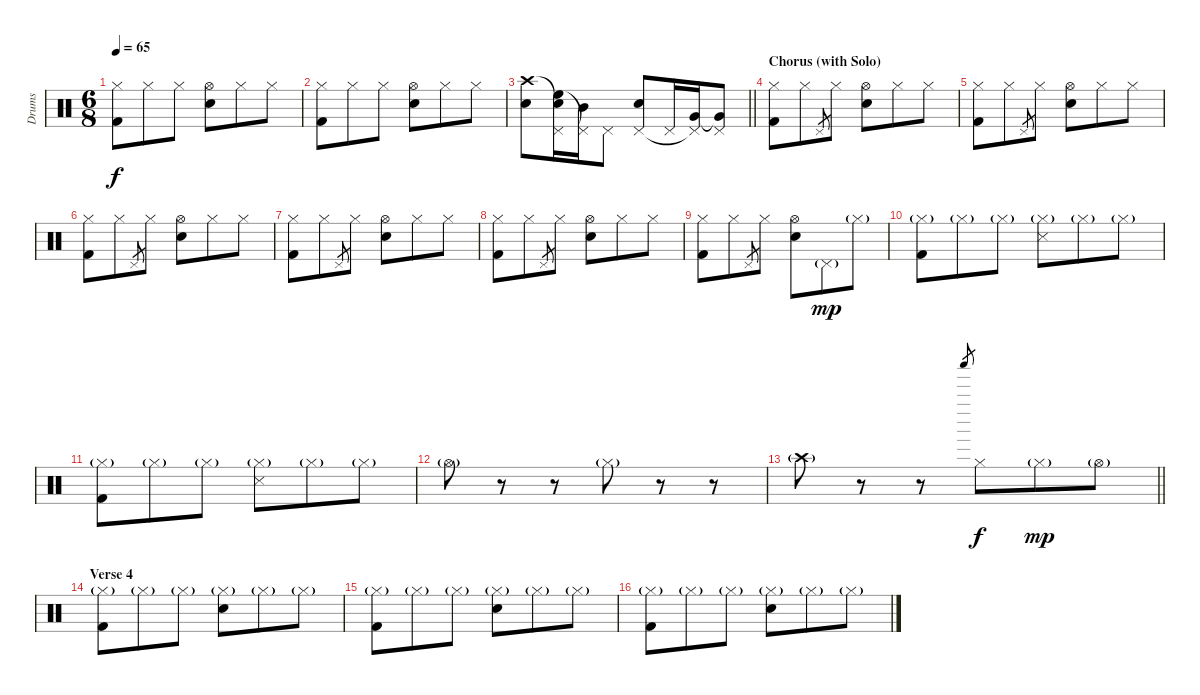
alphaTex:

\track ("Drums" "Drums") {instrument percussion}
\staff {score}
\articulation defaults
\ts (6 8)
\tempo 65
\clef neutral
\ks c
("Hi-Hat (closed)" "Kick (hit) 2").8{dy f} "Hi-Hat (closed)".8 "Hi-Hat (closed)".8 ("Hi-Hat (open)" "Snare (hit) 2").8 "Hi-Hat (closed)".8 "Hi-Hat (closed)".8 |
("Hi-Hat (closed)" "Kick (hit) 2").8 "Hi-Hat (closed)".8 "Hi-Hat (closed)".8 ("Hi-Hat (open)" "Snare (hit) 2").8 "Hi-Hat (closed)".8 "Hi-Hat (closed)".8 |
\barLineRight lightlight
("Crash high (hit)" "Snare (hit) 2").8 ("Snare (hit)"{t} "High Floor Tom (hit)" "Pedal Hi-Hat (hit)").16 ("Mid Tom (hit)" "Pedal Hi-Hat (hit)"{t}).16 "Pedal Hi-Hat (hit)".8 ("Snare (hit) 2" "Pedal Hi-Hat (hit)").8 "Pedal Hi-Hat (hit)".16 ("Very Low Tom (hit)" "Pedal Hi-Hat (hit)"{t}).16 ("Very Low Tom (hit)"{t} "Pedal Hi-Hat (hit)").8 |
\section ("" "Chorus (with Solo)")
("Hi-Hat (closed)" "Kick (hit) 2").8 "Hi-Hat (closed)".8 "Pedal Hi-Hat (hit)".8{gr} "Hi-Hat (closed)".8 ("Hi-Hat (open)" "Snare (hit) 2").8 "Hi-Hat (closed)".8 "Hi-Hat (closed)".8 |
("Hi-Hat (closed)" "Kick (hit) 2").8 "Hi-Hat (closed)".8 "Pedal Hi-Hat (hit)".8{gr} "Hi-Hat (closed)".8 ("Hi-Hat (open)" "Snare (hit) 2").8 "Hi-Hat (closed)".8 "Hi-Hat (closed)".8 |
("Hi-Hat (closed)" "Kick (hit) 2").8 "Hi-Hat (closed)".8 "Pedal Hi-Hat (hit)".8{gr} "Hi-Hat (closed)".8 ("Hi-Hat (open)" "Snare (hit) 2").8 "Hi-Hat (closed)".8 "Hi-Hat (closed)".8 |
("Hi-Hat (closed)" "Kick (hit) 2").8 "Hi-Hat (closed)".8 "Pedal Hi-Hat (hit)".8{gr} "Hi-Hat (closed)".8 ("Hi-Hat (open)" "Snare (hit) 2").8 "Hi-Hat (closed)".8 "Hi-Hat (closed)".8 |
("Hi-Hat (closed)" "Kick (hit) 2").8 "Hi-Hat (closed)".8 "Pedal Hi-Hat (hit)".8{gr} "Hi-Hat (closed)".8 ("Hi-Hat (open)" "Snare (hit) 2").8 "Hi-Hat (closed)".8 "Hi-Hat (closed)".8 |
("Hi-Hat (closed)" "Kick (hit) 2").8 "Hi-Hat (closed)".8 "Pedal Hi-Hat (hit)".8{gr} "Hi-Hat (closed)".8 ("Hi-Hat (open)" "Snare (hit) 2").8 "Pedal Hi-Hat (hit)"{g}.8{dy mp} "Hi-Hat (closed)"{g}.8 |
("Hi-Hat (closed)"{g} "Kick (hit) 2").8 "Hi-Hat (closed)"{g}.8 "Hi-Hat (closed)"{g}.8 ("Hi-Hat (closed)"{g} "Snare (side stick) 3").8 "Hi-Hat (closed)"{g}.8 "Hi-Hat (closed)"{g}.8 |
("Hi-Hat (closed)"{g} "Kick (hit) 2").8 "Hi-Hat (closed)"{g}.8 "Hi-Hat (closed)"{g}.8 ("Hi-Hat (closed)"{g} "Snare (side stick) 3").8 "Hi-Hat (closed)"{g}.8 "Hi-Hat (closed)"{g}.8 |
"Hi-Hat (open)"{g}.8 r.8 r.8 "Hi-Hat (closed)"{g}.8 r.8 r.8 |
\barLineRight lightlight "Crash high (hit)"{g}.8
r.8 r.8 "Shaker (hit)".8{gr} "Hi-Hat (closed)".8{dy f} "Hi-Hat (closed)"{g}.8{dy mp} "Hi-Hat (open)"{g}.8 |
\section ("" "Verse 4")
("Hi-Hat (closed)"{g} "Kick (hit) 2").8 "Hi-Hat (closed)"{g}.8 "Hi-Hat (closed)"{g}.8 ("Hi-Hat (closed)"{g} "Snare (hit) 2").8 "Hi-Hat (closed)"{g}.8 "Hi-Hat (closed)"{g}.8 |
("Hi-Hat (closed)"{g} "Kick (hit) 2").8 "Hi-Hat (closed)"{g}.8 "Hi-Hat (closed)"{g}.8 ("Hi-Hat (closed)"{g} "Snare (hit) 2").8 "Hi-Hat (closed)"{g}.8 "Hi-Hat (closed)"{g}.8 |
("Hi-Hat (closed)"{g} "Kick (hit) 2").8 "Hi-Hat (closed)"{g}.8 "Hi-Hat (closed)"{g}.8 ("Hi-Hat (closed)"{g} "Snare (hit) 2").8 "Hi-Hat (closed)"{g}.8 "Hi-Hat (closed)"{g}.8
